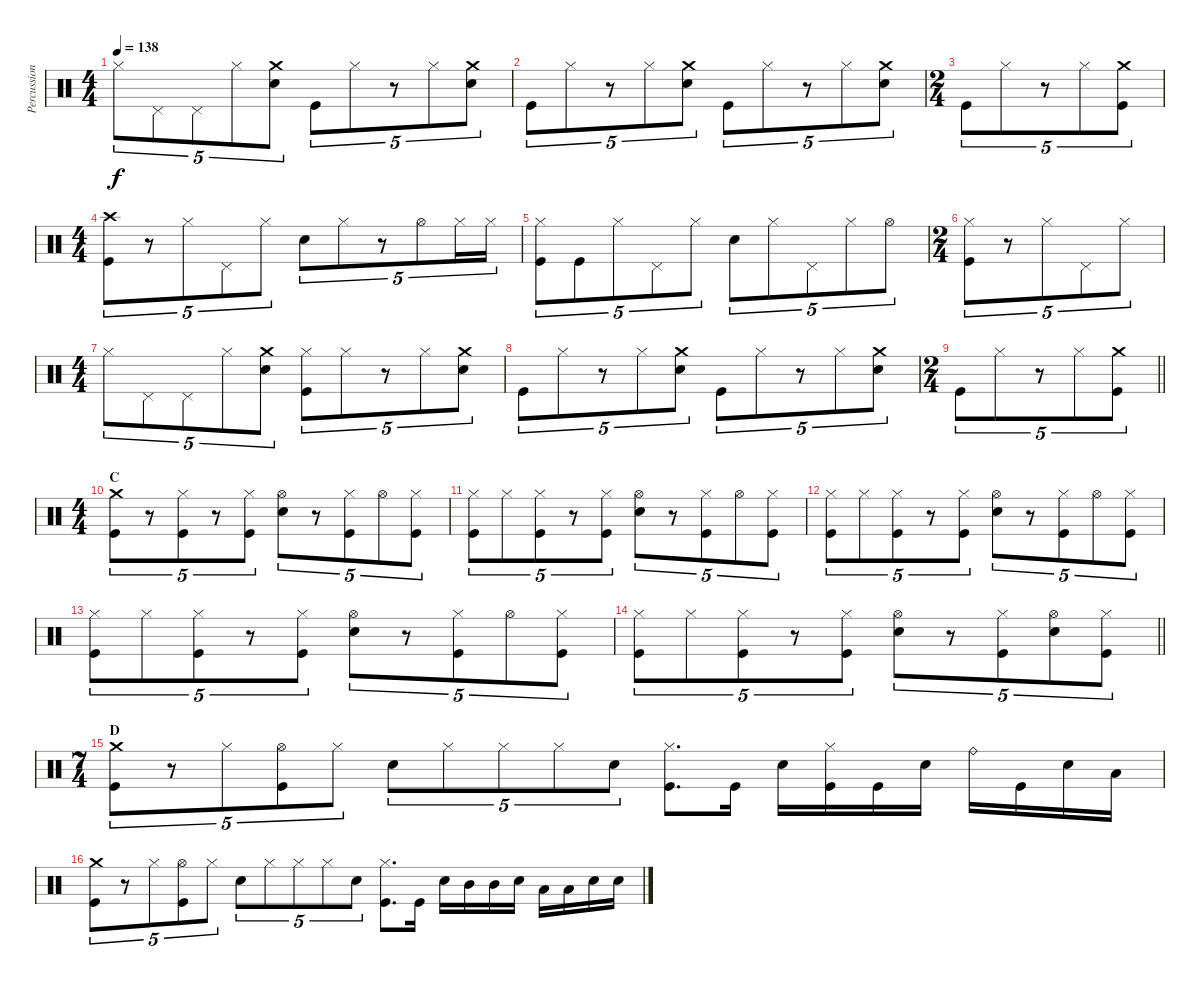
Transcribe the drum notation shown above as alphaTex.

\track ("Percussion" "Percussion") {instrument percussion}
\staff {score}
\articulation defaults
\ts (4 4)
\tempo 138
\clef neutral
\ks c "Hi-Hat (closed)".8{tu (5 4) dy f} "Pedal Hi-Hat (hit)".8{tu (5 4)} "Pedal Hi-Hat (hit)".8{tu (5 4)} "Hi-Hat (closed)".8{tu (5 4)}
("Snare (hit) 2" "Crash medium (hit)").8{tu (5 4)} "Kick (hit)".8{tu (5 4)} "Hi-Hat (closed)".8{tu (5 4)} r.8{tu (5 4)} "Hi-Hat (closed)".8{tu (5 4)} ("Snare (hit) 2" "Crash medium (hit)").8{tu (5 4)} |
"Kick (hit)".8{tu (5 4)} "Hi-Hat (closed)".8{tu (5 4)} r.8{tu (5 4)} "Hi-Hat (closed)".8{tu (5 4)} ("Snare (hit) 2" "Crash medium (hit)").8{tu (5 4)} "Kick (hit)".8{tu (5 4)} "Hi-Hat (closed)".8{tu (5 4)} r.8{tu (5 4)} "Hi-Hat (closed)".8{tu (5 4)} ("Snare (hit) 2" "Crash medium (hit)").8{tu (5 4)} |
\ts (2 4)
"Kick (hit)".8{tu (5 4)} "Hi-Hat (closed)".8{tu (5 4)} r.8{tu (5 4)} "Hi-Hat (closed)".8{tu (5 4)} ("Kick (hit)" "Crash medium (hit)").8{tu (5 4)} |
\ts (4 4)
("Kick (hit)" "Crash high (hit)").8{tu (5 4)} r.8{tu (5 4)} "Hi-Hat (closed)".8{tu (5 4)} "Pedal Hi-Hat (hit)".8{tu (5 4)} "Hi-Hat (closed)".8{tu (5 4)} "Snare (hit) 2".8{tu (5 4)} "Hi-Hat (closed)".8{tu (5 4)} r.8{tu (5 4)} "Hi-Hat (open)".8{tu (5 4)} "Hi-Hat (closed)".16{tu (5 4)} "Hi-Hat (closed)".16{tu (5 4)} |
("Kick (hit)" "Hi-Hat (closed)").8{tu (5 4)} "Kick (hit)".8{tu (5 4)} "Hi-Hat (closed)".8{tu (5 4)} "Pedal Hi-Hat (hit)".8{tu (5 4)} "Hi-Hat (closed)".8{tu (5 4)} "Snare (hit) 2".8{tu (5 4)} "Hi-Hat (closed)".8{tu (5 4)} "Pedal Hi-Hat (hit)".8{tu (5 4)} "Hi-Hat (closed)".8{tu (5 4)} "Hi-Hat (open)".8{tu (5 4)} |
\ts (2 4)
("Kick (hit)" "Hi-Hat (closed)").8{tu (5 4)} r.8{tu (5 4)} "Hi-Hat (closed)".8{tu (5 4)} "Pedal Hi-Hat (hit)".8{tu (5 4)} "Hi-Hat (closed)".8{tu (5 4)} |
\ts (4 4)
"Hi-Hat (closed)".8{tu (5 4)} "Pedal Hi-Hat (hit)".8{tu (5 4)} "Pedal Hi-Hat (hit)".8{tu (5 4)} "Hi-Hat (closed)".8{tu (5 4)} ("Snare (hit) 2" "Crash medium (hit)").8{tu (5 4)} ("Kick (hit)" "Hi-Hat (closed)").8{tu (5 4)} "Hi-Hat (closed)".8{tu (5 4)} r.8{tu (5 4)} "Hi-Hat (closed)".8{tu (5 4)} ("Snare (hit) 2" "Crash medium (hit)").8{tu (5 4)} |
"Kick (hit)".8{tu (5 4)} "Hi-Hat (closed)".8{tu (5 4)} r.8{tu (5 4)} "Hi-Hat (closed)".8{tu (5 4)} ("Snare (hit) 2" "Crash medium (hit)").8{tu (5 4)} "Kick (hit)".8{tu (5 4)} "Hi-Hat (closed)".8{tu (5 4)} r.8{tu (5 4)} "Hi-Hat (closed)".8{tu (5 4)} ("Snare (hit) 2" "Crash medium (hit)").8{tu (5 4)} |
\ts (2 4)
\barLineRight lightlight "Kick (hit)".8{tu (5 4)} "Hi-Hat (closed)".8{tu (5 4)}
r.8{tu (5 4)} "Hi-Hat (closed)".8{tu (5 4)} ("Kick (hit)" "Crash medium (hit)").8{tu (5 4)} |
\ts (4 4)
\section ("" "C")
("Kick (hit)" "Crash medium (hit)").8{tu (5 4)} r.8{tu (5 4)} ("Kick (hit)" "Hi-Hat (closed)").8{tu (5 4)} r.8{tu (5 4)} ("Kick (hit)" "Hi-Hat (closed)").8{tu (5 4)} ("Snare (hit) 2" "Hi-Hat (open)").8{tu (5 4)} r.8{tu (5 4)} ("Kick (hit)" "Hi-Hat (closed)").8{tu (5 4)} "Hi-Hat (open)".8{tu (5 4)} ("Kick (hit)" "Hi-Hat (closed)").8{tu (5 4)} |
("Kick (hit)" "Hi-Hat (closed)").8{tu (5 4)} "Hi-Hat (closed)".8{tu (5 4)} ("Kick (hit)" "Hi-Hat (closed)").8{tu (5 4)} r.8{tu (5 4)} ("Kick (hit)" "Hi-Hat (closed)").8{tu (5 4)} ("Snare (hit) 2" "Hi-Hat (open)").8{tu (5 4)} r.8{tu (5 4)} ("Kick (hit)" "Hi-Hat (closed)").8{tu (5 4)} "Hi-Hat (open)".8{tu (5 4)} ("Kick (hit)" "Hi-Hat (closed)").8{tu (5 4)} |
("Kick (hit)" "Hi-Hat (closed)").8{tu (5 4)} "Hi-Hat (closed)".8{tu (5 4)} ("Kick (hit)" "Hi-Hat (closed)").8{tu (5 4)} r.8{tu (5 4)} ("Kick (hit)" "Hi-Hat (closed)").8{tu (5 4)} ("Snare (hit) 2" "Hi-Hat (open)").8{tu (5 4)} r.8{tu (5 4)} ("Kick (hit)" "Hi-Hat (closed)").8{tu (5 4)} "Hi-Hat (open)".8{tu (5 4)} ("Kick (hit)" "Hi-Hat (closed)").8{tu (5 4)} |
("Kick (hit)" "Hi-Hat (closed)").8{tu (5 4)} "Hi-Hat (closed)".8{tu (5 4)} ("Kick (hit)" "Hi-Hat (closed)").8{tu (5 4)} r.8{tu (5 4)} ("Kick (hit)" "Hi-Hat (closed)").8{tu (5 4)} ("Snare (hit) 2" "Hi-Hat (open)").8{tu (5 4)} r.8{tu (5 4)} ("Kick (hit)" "Hi-Hat (closed)").8{tu (5 4)} "Hi-Hat (open)".8{tu (5 4)} ("Kick (hit)" "Hi-Hat (closed)").8{tu (5 4)} |
\barLineRight lightlight
("Kick (hit)" "Hi-Hat (closed)").8{tu (5 4)} "Hi-Hat (closed)".8{tu (5 4)} ("Kick (hit)" "Hi-Hat (closed)").8{tu (5 4)} r.8{tu (5 4)} ("Kick (hit)" "Hi-Hat (closed)").8{tu (5 4)} ("Snare (hit) 2" "Hi-Hat (open)").8{tu (5 4)} r.8{tu (5 4)} ("Kick (hit)" "Hi-Hat (closed)").8{tu (5 4)} ("Snare (hit) 2" "Hi-Hat (open)").8{tu (5 4)} ("Kick (hit)" "Hi-Hat (closed)").8{tu (5 4)} |
\ts (7 4)
\section ("" "D")
("Kick (hit)" "Crash medium (hit)").8{tu (5 4)} r.8{tu (5 4)} "Hi-Hat (closed)".8{tu (5 4)} ("Kick (hit)" "Hi-Hat (open)").8{tu (5 4)} "Hi-Hat (closed)".8{tu (5 4)} "Snare (hit) 2".8{tu (5 4)} "Hi-Hat (closed)".8{tu (5 4)} "Hi-Hat (closed)".8{tu (5 4)} "Hi-Hat (closed)".8{tu (5 4)} "Snare (hit) 2".8{tu (5 4)} ("Kick (hit)" "Hi-Hat (closed)").8{d} "Kick (hit)".16 "Snare (hit) 2".16 ("Kick (hit)" "Hi-Hat (closed)").16 "Kick (hit)".16 "Snare (hit) 2".16 "Ride (bell)".16 "Kick (hit)".16 "Snare (hit) 2".16 "Low Tom (hit)".16 |
("Kick (hit)" "Crash medium (hit)").8{tu (5 4)} r.8{tu (5 4)} "Hi-Hat (closed)".8{tu (5 4)} ("Kick (hit)" "Hi-Hat (open)").8{tu (5 4)} "Hi-Hat (closed)".8{tu (5 4)} "Snare (hit) 2".8{tu (5 4)} "Hi-Hat (closed)".8{tu (5 4)} "Hi-Hat (closed)".8{tu (5 4)} "Hi-Hat (closed)".8{tu (5 4)} "Snare (hit) 2".8{tu (5 4)} ("Kick (hit)" "Hi-Hat (closed)").8{d} "Kick (hit)".16 "Snare (hit) 2".16 "Mid Tom (hit)".16 "Mid Tom (hit)".16 "Snare (hit) 2".16 "Low Tom (hit)".16 "Low Tom (hit)".16 "Snare (hit) 2".16 "Snare (hit) 2".16
